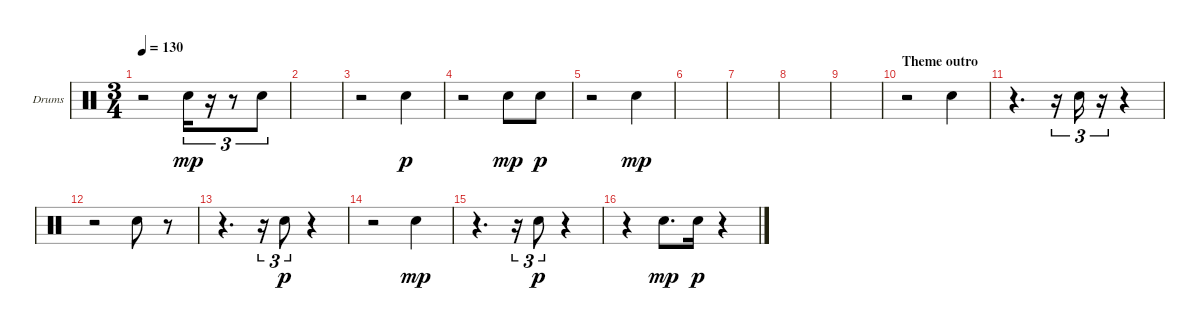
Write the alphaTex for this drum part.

\bracketExtendMode groupsimilarinstruments
\firstSystemTrackNameOrientation horizontal
\otherSystemsTrackNameOrientation horizontal
\track ("Drums" "Drums") {instrument percussion}
\staff {score}
\articulation defaults
\ts (3 4)
\tempo 130
\clef neutral
\ks c
r.2{dy mp} "Snare (hit) 2".16{tu (3 2)} r.16{tu (3 2)} r.8{tu (3 2)} "Snare (hit) 2".8{tu (3 2)} |
|
r.2 "Snare (hit) 2".4{dy p} |
r.2 "Snare (hit) 2".8{dy mp} "Snare (hit) 2".8{dy p} |
r.2 "Snare (hit) 2".4{dy mp} |
|
|
|
|
\section ("" "Theme outro")
r.2 "Snare (hit) 2".4 |
r.4{d} r.16{tu (3 2)} "Snare (hit) 2".16{tu (3 2)} r.16{tu (3 2)} r.4 |
r.2 "Snare (hit) 2".8 r.8 |
r.4{d} r.16{tu (3 2)} "Snare (hit) 2".8{tu (3 2) dy p} r.4 |
r.2 "Snare (hit) 2".4{dy mp} |
r.4{d} r.16{tu (3 2)} "Snare (hit) 2".8{tu (3 2) dy p} r.4 |
r.4 "Snare (hit) 2".8{d dy mp} "Snare (hit) 2".16{dy p} r.4
